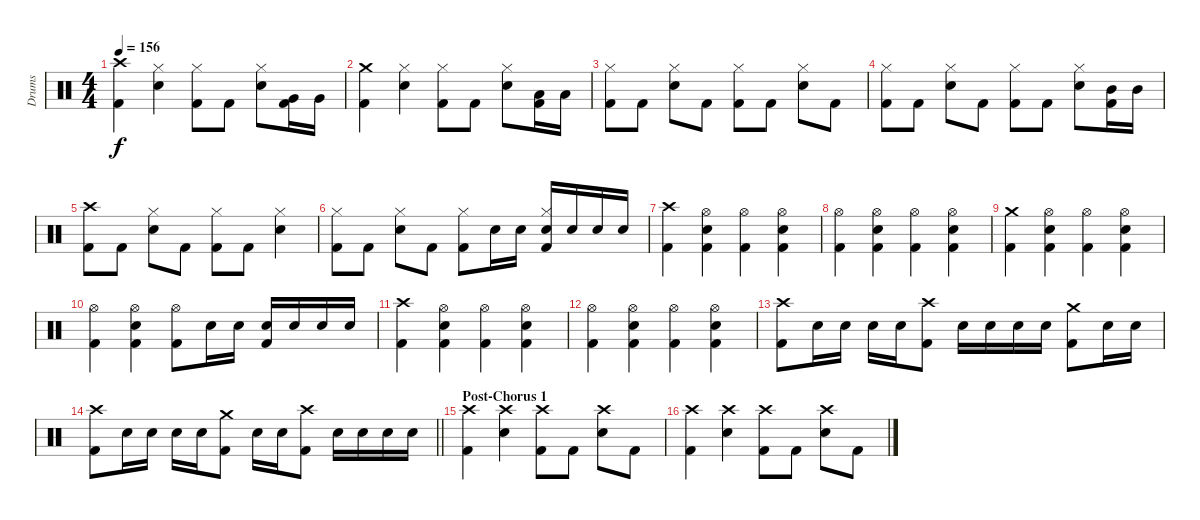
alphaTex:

\track ("Drums" "Drums") {instrument percussion}
\staff {score}
\articulation defaults
\ts (4 4)
\tempo 156
\clef neutral
\ks c
("Crash high (hit)" "Kick (hit) 2").4{dy f} ("Hi-Hat (closed)" "Snare (hit) 2").4 ("Hi-Hat (closed)" "Kick (hit) 2").8 "Kick (hit) 2".8 ("Hi-Hat (closed)" "Snare (hit) 2").8 ("Very Low Tom (hit)" "Kick (hit) 2").16 "Very Low Tom (hit)".16 |
("Crash medium (hit)" "Kick (hit) 2").4 ("Hi-Hat (closed)" "Snare (hit) 2").4 ("Hi-Hat (closed)" "Kick (hit) 2").8 "Kick (hit) 2".8 ("Hi-Hat (closed)" "Snare (hit) 2").8 ("Low Tom (hit)" "Kick (hit) 2").16 "Low Tom (hit)".16 |
("Hi-Hat (closed)" "Kick (hit) 2").8 "Kick (hit) 2".8 ("Hi-Hat (closed)" "Snare (hit) 2").8 "Kick (hit) 2".8 ("Hi-Hat (closed)" "Kick (hit) 2").8 "Kick (hit) 2".8 ("Hi-Hat (closed)" "Snare (hit) 2").8 "Kick (hit) 2".8 |
("Hi-Hat (closed)" "Kick (hit) 2").8 "Kick (hit) 2".8 ("Hi-Hat (closed)" "Snare (hit) 2").8 "Kick (hit) 2".8 ("Hi-Hat (closed)" "Kick (hit) 2").8 "Kick (hit) 2".8 ("Hi-Hat (closed)" "Snare (hit) 2").8 ("Mid Tom (hit)" "Kick (hit) 2").16 "Mid Tom (hit)".16 |
("Crash high (hit)" "Kick (hit) 2").8 "Kick (hit) 2".8 ("Hi-Hat (closed)" "Snare (hit) 2").8 "Kick (hit) 2".8 ("Hi-Hat (closed)" "Kick (hit) 2").8 "Kick (hit) 2".8 ("Hi-Hat (closed)" "Snare (hit) 2").4 |
("Hi-Hat (closed)" "Kick (hit) 2").8 "Kick (hit) 2".8 ("Hi-Hat (closed)" "Snare (hit) 2").8 "Kick (hit) 2".8 ("Hi-Hat (closed)" "Kick (hit) 2").8 "Snare (hit) 2".16 "Snare (hit) 2".16 ("Hi-Hat (closed)" "Snare (hit) 2" "Kick (hit) 2").16 "Snare (hit) 2".16 "Snare (hit) 2".16 "Snare (hit) 2".16 |
("Crash high (hit)" "Kick (hit) 2").4 ("Hi-Hat (open)" "Snare (hit) 2" "Kick (hit) 2").4 ("Hi-Hat (open)" "Kick (hit) 2").4 ("Hi-Hat (open)" "Snare (hit) 2" "Kick (hit) 2").4 |
("Hi-Hat (open)" "Kick (hit) 2").4 ("Hi-Hat (open)" "Snare (hit) 2" "Kick (hit) 2").4 ("Hi-Hat (open)" "Kick (hit) 2").4 ("Hi-Hat (open)" "Snare (hit) 2" "Kick (hit) 2").4 |
("Crash medium (hit)" "Kick (hit) 2").4 ("Hi-Hat (open)" "Snare (hit) 2" "Kick (hit) 2").4 ("Hi-Hat (open)" "Kick (hit) 2").4 ("Hi-Hat (open)" "Snare (hit) 2" "Kick (hit) 2").4 |
("Hi-Hat (open)" "Kick (hit) 2").4 ("Hi-Hat (open)" "Snare (hit) 2" "Kick (hit) 2").4 ("Hi-Hat (open)" "Kick (hit) 2").8 "Snare (hit) 2".16 "Snare (hit) 2".16 ("Snare (hit) 2" "Kick (hit) 2").16 "Snare (hit) 2".16 "Snare (hit) 2".16 "Snare (hit) 2".16 |
("Crash high (hit)" "Kick (hit) 2").4 ("Hi-Hat (open)" "Snare (hit) 2" "Kick (hit) 2").4 ("Hi-Hat (open)" "Kick (hit) 2").4 ("Hi-Hat (open)" "Snare (hit) 2" "Kick (hit) 2").4 |
("Hi-Hat (open)" "Kick (hit) 2").4 ("Hi-Hat (open)" "Snare (hit) 2" "Kick (hit) 2").4 ("Hi-Hat (open)" "Kick (hit) 2").4 ("Hi-Hat (open)" "Snare (hit) 2" "Kick (hit) 2").4 |
("Crash high (hit)" "Kick (hit) 2").8 "Snare (hit) 2".16 "Snare (hit) 2".16 "Snare (hit) 2".16 "Snare (hit) 2".16 ("Crash high (hit)" "Kick (hit) 2").8 "Snare (hit) 2".16 "Snare (hit) 2".16 "Snare (hit) 2".16 "Snare (hit) 2".16 ("Crash medium (hit)" "Kick (hit) 2").8 "Snare (hit) 2".16 "Snare (hit) 2".16 |
\barLineRight lightlight
("Crash high (hit)" "Kick (hit) 2").8 "Snare (hit) 2".16 "Snare (hit) 2".16 "Snare (hit) 2".16 "Snare (hit) 2".16 ("Crash medium (hit)" "Kick (hit) 2").8 "Snare (hit) 2".16 "Snare (hit) 2".16 ("Crash high (hit)" "Kick (hit) 2").8 "Snare (hit) 2".16 "Snare (hit) 2".16 "Snare (hit) 2".16 "Snare (hit) 2".16 |
\section ("" "Post-Chorus 1")
("Crash high (hit)" "Kick (hit) 2").4 ("Crash high (hit)" "Snare (hit) 2").4 ("Crash high (hit)" "Kick (hit) 2").8 "Kick (hit) 2".8 ("Crash high (hit)" "Snare (hit) 2").8 "Kick (hit) 2".8 |
("Crash high (hit)" "Kick (hit) 2").4 ("Crash high (hit)" "Snare (hit) 2").4 ("Crash high (hit)" "Kick (hit) 2").8 "Kick (hit) 2".8 ("Crash high (hit)" "Snare (hit) 2").8 "Kick (hit) 2".8
